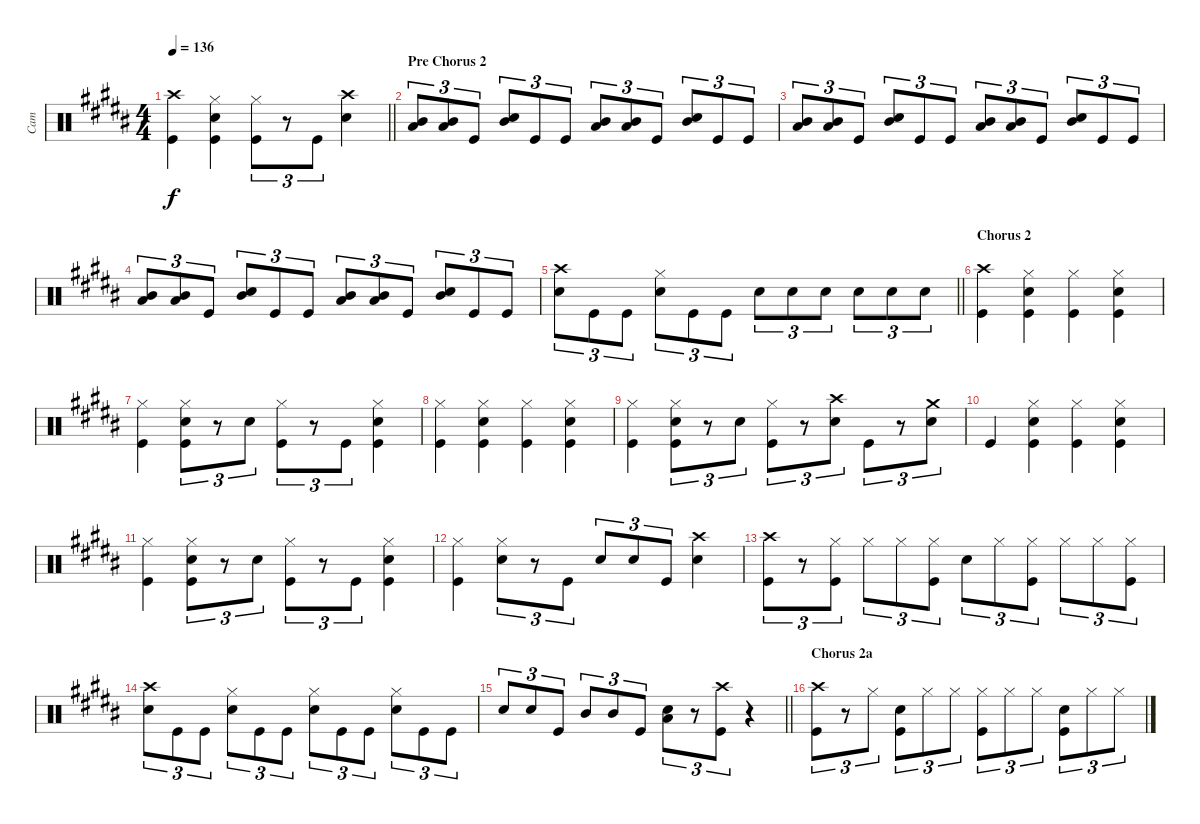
\track ("Cam" "Cam") {instrument percussion}
\staff {score}
\articulation defaults
\ts (4 4)
\tempo 136
\clef neutral
\barLineRight lightlight
\ks b
("Crash high (hit)" "Kick (hit)").4{dy f} ("Snare (hit) 2" "Hi-Hat (closed)" "Kick (hit)").4 ("Hi-Hat (closed)" "Kick (hit)").8{tu (3 2)} r.8{tu (3 2)} "Kick (hit)".8{tu (3 2)} ("Crash high (hit)" "Snare (hit) 2").4 |
\section ("" "Pre Chorus 2")
("Low Tom (hit)" "Mid Tom (hit)").8{tu (3 2)} ("Low Tom (hit)" "Mid Tom (hit)").8{tu (3 2)} "Kick (hit)".8{tu (3 2)} ("Mid Tom (hit)" "Snare (hit) 2").8{tu (3 2)} "Kick (hit)".8{tu (3 2)} "Kick (hit)".8{tu (3 2)} ("Low Tom (hit)" "Mid Tom (hit)").8{tu (3 2)} ("Low Tom (hit)" "Mid Tom (hit)").8{tu (3 2)} "Kick (hit)".8{tu (3 2)} ("Mid Tom (hit)" "Snare (hit) 2").8{tu (3 2)} "Kick (hit)".8{tu (3 2)} "Kick (hit)".8{tu (3 2)} |
("Low Tom (hit)" "Mid Tom (hit)").8{tu (3 2)} ("Low Tom (hit)" "Mid Tom (hit)").8{tu (3 2)} "Kick (hit)".8{tu (3 2)} ("Mid Tom (hit)" "Snare (hit) 2").8{tu (3 2)} "Kick (hit)".8{tu (3 2)} "Kick (hit)".8{tu (3 2)} ("Low Tom (hit)" "Mid Tom (hit)").8{tu (3 2)} ("Low Tom (hit)" "Mid Tom (hit)").8{tu (3 2)} "Kick (hit)".8{tu (3 2)} ("Mid Tom (hit)" "Snare (hit) 2").8{tu (3 2)} "Kick (hit)".8{tu (3 2)} "Kick (hit)".8{tu (3 2)} |
("Low Tom (hit)" "Mid Tom (hit)").8{tu (3 2)} ("Low Tom (hit)" "Mid Tom (hit)").8{tu (3 2)} "Kick (hit)".8{tu (3 2)} ("Mid Tom (hit)" "Snare (hit) 2").8{tu (3 2)} "Kick (hit)".8{tu (3 2)} "Kick (hit)".8{tu (3 2)} ("Low Tom (hit)" "Mid Tom (hit)").8{tu (3 2)} ("Low Tom (hit)" "Mid Tom (hit)").8{tu (3 2)} "Kick (hit)".8{tu (3 2)} ("Mid Tom (hit)" "Snare (hit) 2").8{tu (3 2)} "Kick (hit)".8{tu (3 2)} "Kick (hit)".8{tu (3 2)} |
\barLineRight lightlight
("Crash high (hit)" "Snare (hit) 2").8{tu (3 2)} "Kick (hit)".8{tu (3 2)} "Kick (hit)".8{tu (3 2)} ("Snare (hit) 2" "Hi-Hat (closed)").8{tu (3 2)} "Kick (hit)".8{tu (3 2)} "Kick (hit)".8{tu (3 2)} "Snare (hit) 2".8{tu (3 2)} "Snare (hit) 2".8{tu (3 2)} "Snare (hit) 2".8{tu (3 2)} "Snare (hit) 2".8{tu (3 2)} "Snare (hit) 2".8{tu (3 2)} "Snare (hit) 2".8{tu (3 2)} |
\section ("" "Chorus 2")
("Crash high (hit)" "Kick (hit)").4 ("Snare (hit) 2" "Hi-Hat (closed)" "Kick (hit)").4 ("Hi-Hat (closed)" "Kick (hit)").4 ("Snare (hit) 2" "Hi-Hat (closed)" "Kick (hit)").4 |
("Hi-Hat (closed)" "Kick (hit)").4 ("Snare (hit) 2" "Hi-Hat (closed)" "Kick (hit)").8{tu (3 2)} r.8{tu (3 2)} "Snare (hit) 2".8{tu (3 2)} ("Hi-Hat (closed)" "Kick (hit)").8{tu (3 2)} r.8{tu (3 2)} "Kick (hit)".8{tu (3 2)} ("Snare (hit) 2" "Hi-Hat (closed)" "Kick (hit)").4 |
("Hi-Hat (closed)" "Kick (hit)").4 ("Snare (hit) 2" "Hi-Hat (closed)" "Kick (hit)").4 ("Hi-Hat (closed)" "Kick (hit)").4 ("Snare (hit) 2" "Hi-Hat (closed)" "Kick (hit)").4 |
("Hi-Hat (closed)" "Kick (hit)").4 ("Snare (hit) 2" "Hi-Hat (closed)" "Kick (hit)").8{tu (3 2)} r.8{tu (3 2)} "Snare (hit) 2".8{tu (3 2)} ("Hi-Hat (closed)" "Kick (hit)").8{tu (3 2)} r.8{tu (3 2)} ("Crash high (hit)" "Snare (hit) 2").8{tu (3 2)} "Kick (hit)".8{tu (3 2)} r.8{tu (3 2)} ("Crash medium (hit)" "Snare (hit) 2").8{tu (3 2)} |
"Kick (hit)".4 ("Snare (hit) 2" "Hi-Hat (closed)" "Kick (hit)").4 ("Hi-Hat (closed)" "Kick (hit)").4 ("Snare (hit) 2" "Hi-Hat (closed)" "Kick (hit)").4 |
("Hi-Hat (closed)" "Kick (hit)").4 ("Snare (hit) 2" "Hi-Hat (closed)" "Kick (hit)").8{tu (3 2)} r.8{tu (3 2)} "Snare (hit) 2".8{tu (3 2)} ("Hi-Hat (closed)" "Kick (hit)").8{tu (3 2)} r.8{tu (3 2)} "Kick (hit)".8{tu (3 2)} ("Snare (hit) 2" "Hi-Hat (closed)" "Kick (hit)").4 |
("Hi-Hat (closed)" "Kick (hit)").4 ("Snare (hit) 2" "Hi-Hat (closed)").8{tu (3 2)} r.8{tu (3 2)} "Kick (hit)".8{tu (3 2)} "Snare (hit) 2".8{tu (3 2)} "Snare (hit) 2".8{tu (3 2)} "Kick (hit)".8{tu (3 2)} ("Crash high (hit)" "Snare (hit) 2").4 |
("Crash high (hit)" "Kick (hit)").8{tu (3 2)} r.8{tu (3 2)} ("Hi-Hat (closed)" "Kick (hit)").8{tu (3 2)} "Hi-Hat (closed)".8{tu (3 2)} "Hi-Hat (closed)".8{tu (3 2)} ("Hi-Hat (closed)" "Kick (hit)").8{tu (3 2)} "Snare (hit) 2".8{tu (3 2)} "Hi-Hat (closed)".8{tu (3 2)} ("Hi-Hat (closed)" "Kick (hit)").8{tu (3 2)} "Hi-Hat (closed)".8{tu (3 2)} "Hi-Hat (closed)".8{tu (3 2)} ("Hi-Hat (closed)" "Kick (hit)").8{tu (3 2)} |
("Crash high (hit)" "Snare (hit) 2").8{tu (3 2)} "Kick (hit)".8{tu (3 2)} "Kick (hit)".8{tu (3 2)} ("Snare (hit) 2" "Hi-Hat (closed)").8{tu (3 2)} "Kick (hit)".8{tu (3 2)} "Kick (hit)".8{tu (3 2)} ("Snare (hit) 2" "Hi-Hat (closed)").8{tu (3 2)} "Kick (hit)".8{tu (3 2)} "Kick (hit)".8{tu (3 2)} ("Snare (hit) 2" "Hi-Hat (closed)").8{tu (3 2)} "Kick (hit)".8{tu (3 2)} "Kick (hit)".8{tu (3 2)} |
\barLineRight lightlight "Snare (hit) 2".8{tu (3 2)} "Snare (hit) 2".8{tu (3 2)} "Kick (hit)".8{tu (3 2)} "Mid Tom (hit)".8{tu (3 2)} "Mid Tom (hit)".8{tu (3 2)} "Kick (hit)".8{tu (3 2)}
("Low Tom (hit)" "Snare (hit) 2").8{tu (3 2)} r.8{tu (3 2)} ("Crash high (hit)" "Kick (hit)").8{tu (3 2)} r.4 |
\section ("" "Chorus 2a")
("Crash high (hit)" "Kick (hit)").8{tu (3 2)} r.8{tu (3 2)} "Hi-Hat (closed)".8{tu (3 2)} ("Snare (hit) 2" "Kick (hit)").8{tu (3 2)} "Hi-Hat (closed)".8{tu (3 2)} "Hi-Hat (closed)".8{tu (3 2)} ("Hi-Hat (closed)" "Kick (hit)").8{tu (3 2)} "Hi-Hat (closed)".8{tu (3 2)} "Hi-Hat (closed)".8{tu (3 2)} ("Snare (hit) 2" "Kick (hit)").8{tu (3 2)} "Hi-Hat (closed)".8{tu (3 2)} "Hi-Hat (closed)".8{tu (3 2)}
